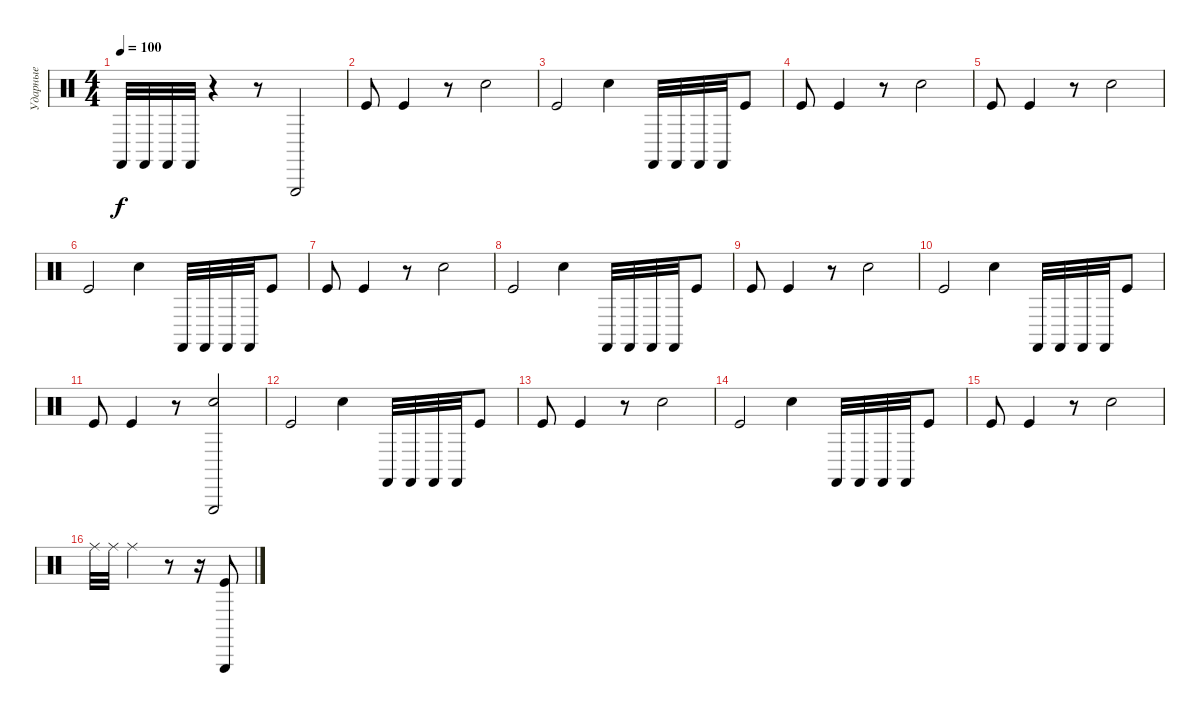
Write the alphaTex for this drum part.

\track ("Ударные" "Ударные") {instrument percussion}
\staff {score}
\articulation defaults
\ts (4 4)
\tempo 100
\clef neutral
\ks c "Castanets (hit)".32{dy f} "Castanets (hit)".32 "Castanets (hit)".32 "Castanets (hit)".32
r.4 r.8 "Triangle (hit)".2 |
"Kick (hit)".8 "Kick (hit)".4 r.8 "Snare (hit) 2".2 |
"Kick (hit)".2 "Snare (hit) 2".4 "Castanets (hit)".32 "Castanets (hit)".32 "Castanets (hit)".32 "Castanets (hit)".32 "Kick (hit)".8 |
"Kick (hit)".8 "Kick (hit)".4 r.8 "Snare (hit) 2".2 |
"Kick (hit)".8 "Kick (hit)".4 r.8 "Snare (hit) 2".2 |
"Kick (hit)".2 "Snare (hit) 2".4 "Castanets (hit)".32 "Castanets (hit)".32 "Castanets (hit)".32 "Castanets (hit)".32 "Kick (hit)".8 |
"Kick (hit)".8 "Kick (hit)".4 r.8 "Snare (hit) 2".2 |
"Kick (hit)".2 "Snare (hit) 2".4 "Castanets (hit)".32 "Castanets (hit)".32 "Castanets (hit)".32 "Castanets (hit)".32 "Kick (hit)".8 |
"Kick (hit)".8 "Kick (hit)".4 r.8 "Snare (hit) 2".2 |
"Kick (hit)".2 "Snare (hit) 2".4 "Castanets (hit)".32 "Castanets (hit)".32 "Castanets (hit)".32 "Castanets (hit)".32 "Kick (hit)".8 |
"Kick (hit)".8 "Kick (hit)".4 r.8 ("Snare (hit) 2" "Triangle (hit)").2 |
"Kick (hit)".2 "Snare (hit) 2".4 "Castanets (hit)".32 "Castanets (hit)".32 "Castanets (hit)".32 "Castanets (hit)".32 "Kick (hit)".8 |
"Kick (hit)".8 "Kick (hit)".4 r.8 "Snare (hit) 2".2 |
"Kick (hit)".2 "Snare (hit) 2".4 "Castanets (hit)".32 "Castanets (hit)".32 "Castanets (hit)".32 "Castanets (hit)".32 "Kick (hit)".8 |
"Kick (hit)".8 "Kick (hit)".4 r.8 "Snare (hit) 2".2 |
"Ride (middle)".32 "Ride (middle)".32 "Ride (middle)".4 r.8 r.16 ("Kick (hit)" "Triangle (hit)").8
